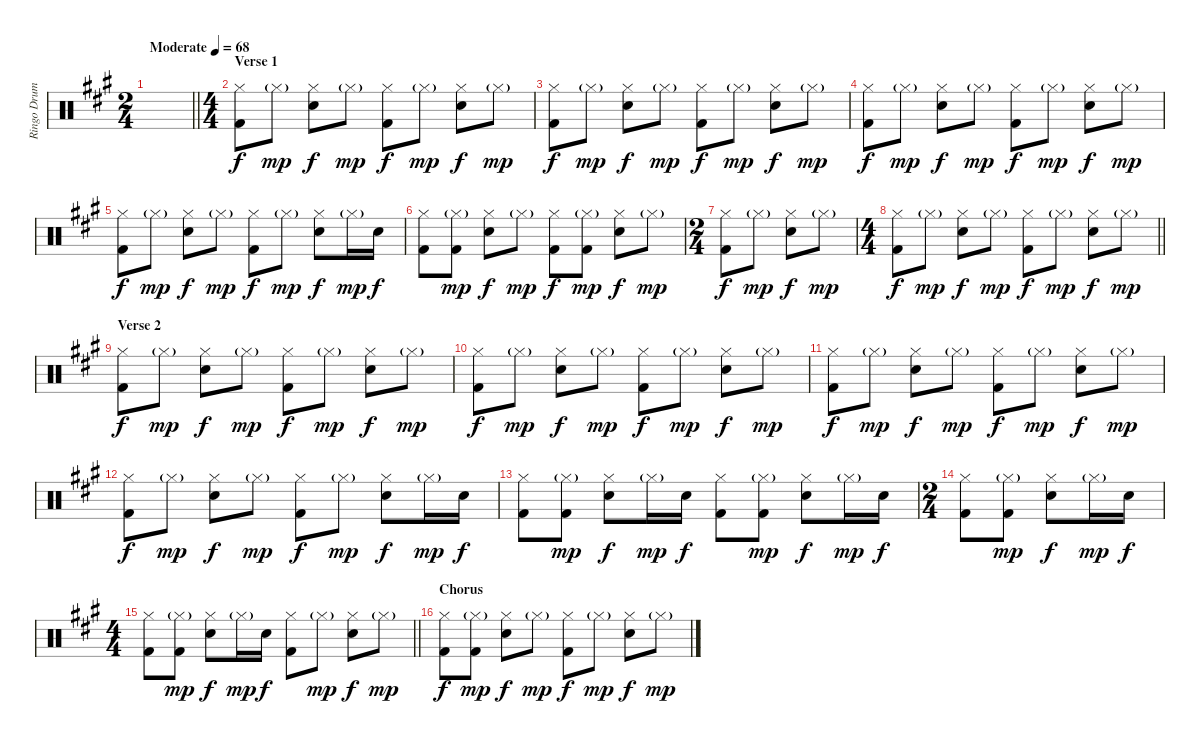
\track ("Ringo Drums" "Ringo Drum") {instrument percussion}
\staff {score}
\articulation defaults
\ts (2 4)
\tempo (68 "Moderate")
\clef neutral
\barLineRight lightlight
\ks a
|
\ts (4 4)
\section ("" "Verse 1")
("Hi-Hat (closed)" "Kick (hit) 2").8 "Hi-Hat (closed)"{g}.8{dy mp} ("Hi-Hat (closed)" "Snare (hit) 2").8{dy f} "Hi-Hat (closed)"{g}.8{dy mp} ("Hi-Hat (closed)" "Kick (hit) 2").8{dy f} "Hi-Hat (closed)"{g}.8{dy mp} ("Hi-Hat (closed)" "Snare (hit) 2").8{dy f} "Hi-Hat (closed)"{g}.8{dy mp} |
("Hi-Hat (closed)" "Kick (hit) 2").8{dy f} "Hi-Hat (closed)"{g}.8{dy mp} ("Hi-Hat (closed)" "Snare (hit) 2").8{dy f} "Hi-Hat (closed)"{g}.8{dy mp} ("Hi-Hat (closed)" "Kick (hit) 2").8{dy f} "Hi-Hat (closed)"{g}.8{dy mp} ("Hi-Hat (closed)" "Snare (hit) 2").8{dy f} "Hi-Hat (closed)"{g}.8{dy mp} |
("Hi-Hat (closed)" "Kick (hit) 2").8{dy f} "Hi-Hat (closed)"{g}.8{dy mp} ("Hi-Hat (closed)" "Snare (hit) 2").8{dy f} "Hi-Hat (closed)"{g}.8{dy mp} ("Hi-Hat (closed)" "Kick (hit) 2").8{dy f} "Hi-Hat (closed)"{g}.8{dy mp} ("Hi-Hat (closed)" "Snare (hit) 2").8{dy f} "Hi-Hat (closed)"{g}.8{dy mp} |
("Hi-Hat (closed)" "Kick (hit) 2").8{dy f} "Hi-Hat (closed)"{g}.8{dy mp} ("Hi-Hat (closed)" "Snare (hit) 2").8{dy f} "Hi-Hat (closed)"{g}.8{dy mp} ("Hi-Hat (closed)" "Kick (hit) 2").8{dy f} "Hi-Hat (closed)"{g}.8{dy mp} ("Hi-Hat (closed)" "Snare (hit) 2").8{dy f} "Hi-Hat (closed)"{g}.16{dy mp} "Snare (hit) 2".16{dy f} |
("Hi-Hat (closed)" "Kick (hit) 2").8 ("Hi-Hat (closed)"{g} "Kick (hit) 2").8{dy mp} ("Hi-Hat (closed)" "Snare (hit) 2").8{dy f} "Hi-Hat (closed)"{g}.8{dy mp} ("Hi-Hat (closed)" "Kick (hit) 2").8{dy f} ("Hi-Hat (closed)"{g} "Kick (hit) 2").8{dy mp} ("Hi-Hat (closed)" "Snare (hit) 2").8{dy f} "Hi-Hat (closed)"{g}.8{dy mp} |
\ts (2 4)
("Hi-Hat (closed)" "Kick (hit) 2").8{dy f} "Hi-Hat (closed)"{g}.8{dy mp} ("Hi-Hat (closed)" "Snare (hit) 2").8{dy f} "Hi-Hat (closed)"{g}.8{dy mp} |
\ts (4 4)
\barLineRight lightlight
("Hi-Hat (closed)" "Kick (hit) 2").8{dy f} "Hi-Hat (closed)"{g}.8{dy mp} ("Hi-Hat (closed)" "Snare (hit) 2").8{dy f} "Hi-Hat (closed)"{g}.8{dy mp} ("Hi-Hat (closed)" "Kick (hit) 2").8{dy f} "Hi-Hat (closed)"{g}.8{dy mp} ("Hi-Hat (closed)" "Snare (hit) 2").8{dy f} "Hi-Hat (closed)"{g}.8{dy mp} |
\section ("" "Verse 2")
("Hi-Hat (closed)" "Kick (hit) 2").8{dy f} "Hi-Hat (closed)"{g}.8{dy mp} ("Hi-Hat (closed)" "Snare (hit) 2").8{dy f} "Hi-Hat (closed)"{g}.8{dy mp} ("Hi-Hat (closed)" "Kick (hit) 2").8{dy f} "Hi-Hat (closed)"{g}.8{dy mp} ("Hi-Hat (closed)" "Snare (hit) 2").8{dy f} "Hi-Hat (closed)"{g}.8{dy mp} |
("Hi-Hat (closed)" "Kick (hit) 2").8{dy f} "Hi-Hat (closed)"{g}.8{dy mp} ("Hi-Hat (closed)" "Snare (hit) 2").8{dy f} "Hi-Hat (closed)"{g}.8{dy mp} ("Hi-Hat (closed)" "Kick (hit) 2").8{dy f} "Hi-Hat (closed)"{g}.8{dy mp} ("Hi-Hat (closed)" "Snare (hit) 2").8{dy f} "Hi-Hat (closed)"{g}.8{dy mp} |
("Hi-Hat (closed)" "Kick (hit) 2").8{dy f} "Hi-Hat (closed)"{g}.8{dy mp} ("Hi-Hat (closed)" "Snare (hit) 2").8{dy f} "Hi-Hat (closed)"{g}.8{dy mp} ("Hi-Hat (closed)" "Kick (hit) 2").8{dy f} "Hi-Hat (closed)"{g}.8{dy mp} ("Hi-Hat (closed)" "Snare (hit) 2").8{dy f} "Hi-Hat (closed)"{g}.8{dy mp} |
("Hi-Hat (closed)" "Kick (hit) 2").8{dy f} "Hi-Hat (closed)"{g}.8{dy mp} ("Hi-Hat (closed)" "Snare (hit) 2").8{dy f} "Hi-Hat (closed)"{g}.8{dy mp} ("Hi-Hat (closed)" "Kick (hit) 2").8{dy f} "Hi-Hat (closed)"{g}.8{dy mp} ("Hi-Hat (closed)" "Snare (hit) 2").8{dy f} "Hi-Hat (closed)"{g}.16{dy mp} "Snare (hit) 2".16{dy f} |
("Hi-Hat (closed)" "Kick (hit) 2").8 ("Hi-Hat (closed)"{g} "Kick (hit) 2").8{dy mp} ("Hi-Hat (closed)" "Snare (hit) 2").8{dy f} "Hi-Hat (closed)"{g}.16{dy mp} "Snare (hit) 2".16{dy f} ("Hi-Hat (closed)" "Kick (hit) 2").8 ("Hi-Hat (closed)"{g} "Kick (hit) 2").8{dy mp} ("Hi-Hat (closed)" "Snare (hit) 2").8{dy f} "Hi-Hat (closed)"{g}.16{dy mp} "Snare (hit) 2".16{dy f} |
\ts (2 4)
("Hi-Hat (closed)" "Kick (hit) 2").8 ("Hi-Hat (closed)"{g} "Kick (hit) 2").8{dy mp} ("Hi-Hat (closed)" "Snare (hit) 2").8{dy f} "Hi-Hat (closed)"{g}.16{dy mp} "Snare (hit) 2".16{dy f} |
\ts (4 4)
\barLineRight lightlight
("Hi-Hat (closed)" "Kick (hit) 2").8 ("Hi-Hat (closed)"{g} "Kick (hit) 2").8{dy mp} ("Hi-Hat (closed)" "Snare (hit) 2").8{dy f} "Hi-Hat (closed)"{g}.16{dy mp} "Snare (hit) 2".16{dy f} ("Hi-Hat (closed)" "Kick (hit) 2").8 "Hi-Hat (closed)"{g}.8{dy mp} ("Hi-Hat (closed)" "Snare (hit) 2").8{dy f} "Hi-Hat (closed)"{g}.8{dy mp} |
\section ("" "Chorus")
("Hi-Hat (closed)" "Kick (hit) 2").8{dy f} ("Hi-Hat (closed)"{g} "Kick (hit) 2").8{dy mp} ("Hi-Hat (closed)" "Snare (hit) 2").8{dy f} "Hi-Hat (closed)"{g}.8{dy mp} ("Hi-Hat (closed)" "Kick (hit) 2").8{dy f} "Hi-Hat (closed)"{g}.8{dy mp} ("Hi-Hat (closed)" "Snare (hit) 2").8{dy f} "Hi-Hat (closed)"{g}.8{dy mp}
